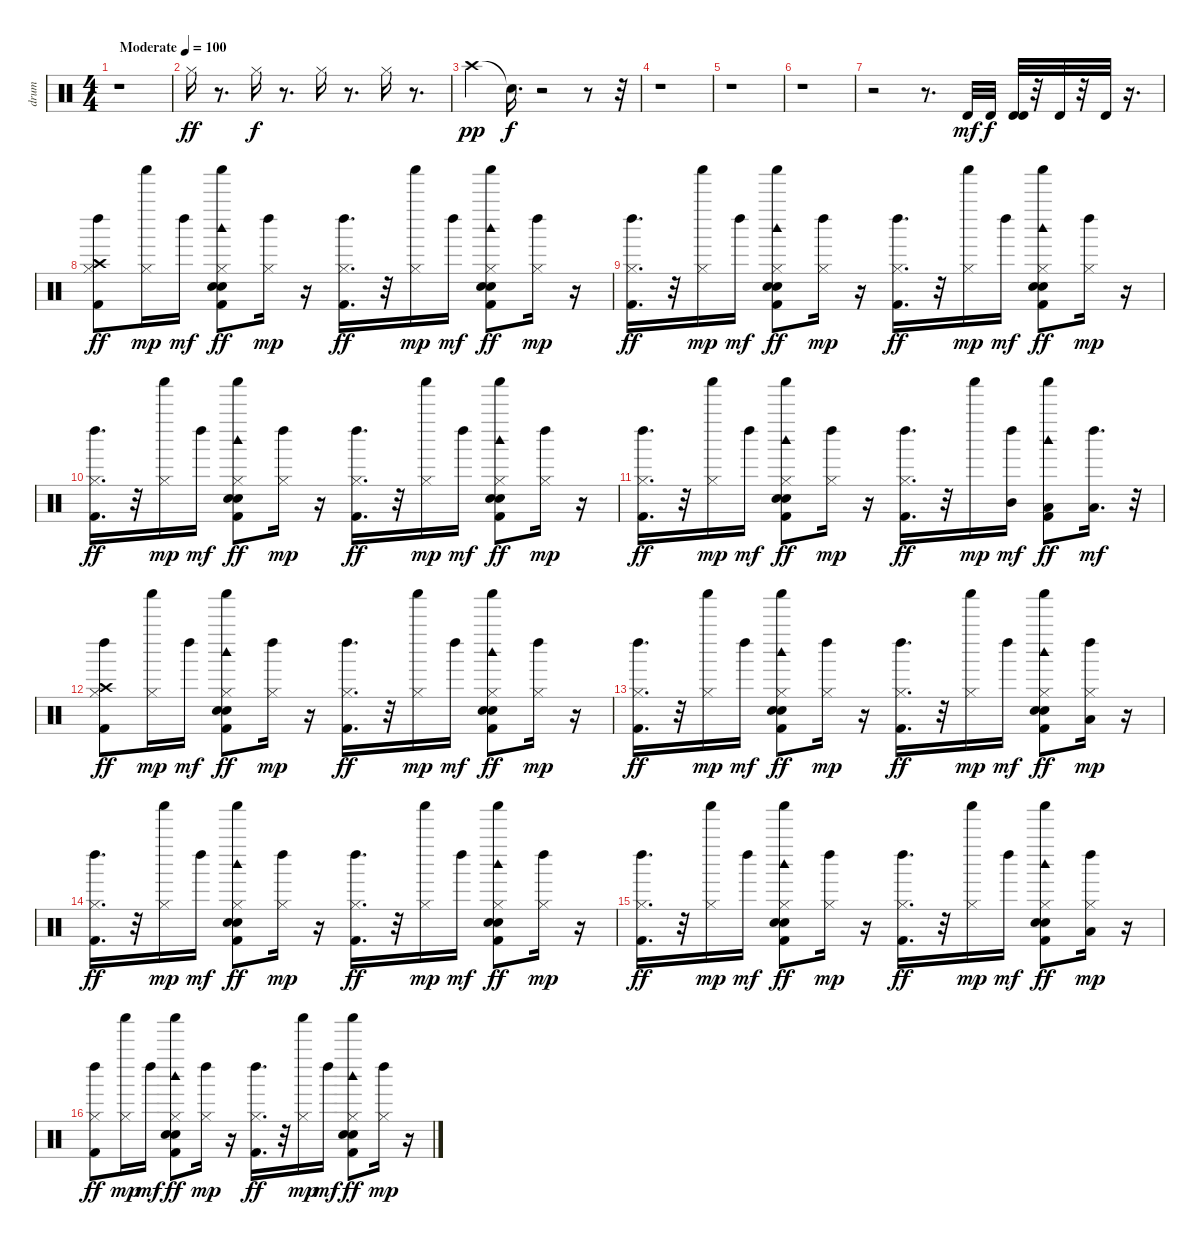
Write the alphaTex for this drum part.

\track ("drum" "drum") {instrument percussion}
\staff {score}
\articulation defaults
\ts (4 4)
\tempo (100 "Moderate")
\clef neutral
\ks c
r.1{dy ff} |
"Hi-Hat (closed)".16 r.8{d} "Hi-Hat (closed)".16{dy f} r.8{d} "Hi-Hat (closed)".16 r.8{d} "Hi-Hat (closed)".16 r.8{d} |
"Crash high (hit)".4{dy pp} "Snare (hit)"{t}.16{d dy f} r.2 r.8 r.32 |
r.1 |
r.1 |
r.1 |
r.2 r.8{d} "Timbale high (hit)".32{dy mf} "Timbale high (hit)".32{dy f} ("Timbale high (hit)" "Timbale high (hit)").32 r.32 "Timbale high (hit)".32 r.32 "Timbale high (hit)".32 r.16{d} |
("Crash high (hit)" "Left Maraca (hit)" "Hi-Hat (closed)" "Kick (hit) 2").8{dy ff} ("Shaker (hit)" "Hi-Hat (closed)").16{dy mp} "Left Maraca (hit)".16{dy mf} ("Shaker (hit)" "Woodblock high (hit)" "Hi-Hat (closed)" "Hand Clap (hit)" "Snare (hit) 2" "Kick (hit) 2").8{dy ff} ("Left Maraca (hit)" "Hi-Hat (closed)").16{dy mp} r.16 ("Left Maraca (hit)" "Hi-Hat (closed)" "Kick (hit) 2").16{d dy ff} r.32 ("Shaker (hit)" "Hi-Hat (closed)").16{dy mp} "Left Maraca (hit)".16{dy mf} ("Shaker (hit)" "Woodblock high (hit)" "Hi-Hat (closed)" "Hand Clap (hit)" "Snare (hit) 2" "Kick (hit) 2").8{dy ff} ("Left Maraca (hit)" "Hi-Hat (closed)").16{dy mp} r.16 |
("Left Maraca (hit)" "Hi-Hat (closed)" "Kick (hit) 2").16{d dy ff} r.32 ("Shaker (hit)" "Hi-Hat (closed)").16{dy mp} "Left Maraca (hit)".16{dy mf} ("Shaker (hit)" "Woodblock high (hit)" "Hi-Hat (closed)" "Hand Clap (hit)" "Snare (hit) 2" "Kick (hit) 2").8{dy ff} ("Left Maraca (hit)" "Hi-Hat (closed)").16{dy mp} r.16 ("Left Maraca (hit)" "Hi-Hat (closed)" "Kick (hit) 2").16{d dy ff} r.32 ("Shaker (hit)" "Hi-Hat (closed)").16{dy mp} "Left Maraca (hit)".16{dy mf} ("Shaker (hit)" "Woodblock high (hit)" "Hi-Hat (closed)" "Hand Clap (hit)" "Snare (hit) 2" "Kick (hit) 2").8{dy ff} ("Left Maraca (hit)" "Hi-Hat (closed)").16{dy mp} r.16 |
("Left Maraca (hit)" "Hi-Hat (closed)" "Kick (hit) 2").16{d dy ff} r.32 ("Shaker (hit)" "Hi-Hat (closed)").16{dy mp} "Left Maraca (hit)".16{dy mf} ("Shaker (hit)" "Woodblock high (hit)" "Hi-Hat (closed)" "Hand Clap (hit)" "Snare (hit) 2" "Kick (hit) 2").8{dy ff} ("Left Maraca (hit)" "Hi-Hat (closed)").16{dy mp} r.16 ("Left Maraca (hit)" "Hi-Hat (closed)" "Kick (hit) 2").16{d dy ff} r.32 ("Shaker (hit)" "Hi-Hat (closed)").16{dy mp} "Left Maraca (hit)".16{dy mf} ("Shaker (hit)" "Woodblock high (hit)" "Hi-Hat (closed)" "Hand Clap (hit)" "Snare (hit) 2" "Kick (hit) 2").8{dy ff} ("Left Maraca (hit)" "Hi-Hat (closed)").16{dy mp} r.16 |
("Left Maraca (hit)" "Hi-Hat (closed)" "Kick (hit) 2").16{d dy ff} r.32 ("Shaker (hit)" "Hi-Hat (closed)").16{dy mp} "Left Maraca (hit)".16{dy mf} ("Shaker (hit)" "Woodblock high (hit)" "Hi-Hat (closed)" "Hand Clap (hit)" "Snare (hit) 2" "Kick (hit) 2").8{dy ff} ("Left Maraca (hit)" "Hi-Hat (closed)").16{dy mp} r.16 ("Left Maraca (hit)" "Hi-Hat (closed)" "Kick (hit) 2").16{d dy ff} r.32 "Shaker (hit)".16{dy mp} ("Left Maraca (hit)" "Mid Tom (hit)").16{dy mf} ("Shaker (hit)" "Woodblock high (hit)" "Kick (hit) 2" "Low Tom (hit)").8{dy ff} ("Left Maraca (hit)" "Low Floor Tom (hit)").16{d dy mf} r.32 |
("Crash high (hit)" "Left Maraca (hit)" "Hi-Hat (closed)" "Kick (hit) 2").8{dy ff} ("Shaker (hit)" "Hi-Hat (closed)").16{dy mp} "Left Maraca (hit)".16{dy mf} ("Shaker (hit)" "Woodblock high (hit)" "Hi-Hat (closed)" "Hand Clap (hit)" "Snare (hit) 2" "Kick (hit) 2").8{dy ff} ("Left Maraca (hit)" "Hi-Hat (closed)").16{dy mp} r.16 ("Left Maraca (hit)" "Hi-Hat (closed)" "Kick (hit) 2").16{d dy ff} r.32 ("Shaker (hit)" "Hi-Hat (closed)").16{dy mp} "Left Maraca (hit)".16{dy mf} ("Shaker (hit)" "Woodblock high (hit)" "Hi-Hat (closed)" "Hand Clap (hit)" "Snare (hit) 2" "Kick (hit) 2").8{dy ff} ("Left Maraca (hit)" "Hi-Hat (closed)").16{dy mp} r.16 |
("Left Maraca (hit)" "Hi-Hat (closed)" "Kick (hit) 2").16{d dy ff} r.32 ("Shaker (hit)" "Hi-Hat (closed)").16{dy mp} "Left Maraca (hit)".16{dy mf} ("Shaker (hit)" "Woodblock high (hit)" "Hi-Hat (closed)" "Hand Clap (hit)" "Snare (hit) 2" "Kick (hit) 2").8{dy ff} ("Left Maraca (hit)" "Hi-Hat (closed)").16{dy mp} r.16 ("Left Maraca (hit)" "Hi-Hat (closed)" "Kick (hit) 2").16{d dy ff} r.32 ("Shaker (hit)" "Hi-Hat (closed)").16{dy mp} "Left Maraca (hit)".16{dy mf} ("Shaker (hit)" "Woodblock high (hit)" "Hi-Hat (closed)" "Hand Clap (hit)" "Snare (hit) 2" "Kick (hit) 2").8{dy ff} ("Left Maraca (hit)" "Hi-Hat (closed)" "Low Floor Tom (hit)").16{dy mp} r.16 |
("Left Maraca (hit)" "Hi-Hat (closed)" "Kick (hit) 2").16{d dy ff} r.32 ("Shaker (hit)" "Hi-Hat (closed)").16{dy mp} "Left Maraca (hit)".16{dy mf} ("Shaker (hit)" "Woodblock high (hit)" "Hi-Hat (closed)" "Hand Clap (hit)" "Snare (hit) 2" "Kick (hit) 2").8{dy ff} ("Left Maraca (hit)" "Hi-Hat (closed)").16{dy mp} r.16 ("Left Maraca (hit)" "Hi-Hat (closed)" "Kick (hit) 2").16{d dy ff} r.32 ("Shaker (hit)" "Hi-Hat (closed)").16{dy mp} "Left Maraca (hit)".16{dy mf} ("Shaker (hit)" "Woodblock high (hit)" "Hi-Hat (closed)" "Hand Clap (hit)" "Snare (hit) 2" "Kick (hit) 2").8{dy ff} ("Left Maraca (hit)" "Hi-Hat (closed)").16{dy mp} r.16 |
("Left Maraca (hit)" "Hi-Hat (closed)" "Kick (hit) 2").16{d dy ff} r.32 ("Shaker (hit)" "Hi-Hat (closed)").16{dy mp} "Left Maraca (hit)".16{dy mf} ("Shaker (hit)" "Woodblock high (hit)" "Hi-Hat (closed)" "Hand Clap (hit)" "Snare (hit) 2" "Kick (hit) 2").8{dy ff} ("Left Maraca (hit)" "Hi-Hat (closed)").16{dy mp} r.16 ("Left Maraca (hit)" "Hi-Hat (closed)" "Kick (hit) 2").16{d dy ff} r.32 ("Shaker (hit)" "Hi-Hat (closed)").16{dy mp} "Left Maraca (hit)".16{dy mf} ("Shaker (hit)" "Woodblock high (hit)" "Hi-Hat (closed)" "Hand Clap (hit)" "Snare (hit) 2" "Kick (hit) 2").8{dy ff} ("Left Maraca (hit)" "Hi-Hat (closed)" "Low Floor Tom (hit)").16{dy mp} r.16 |
("Left Maraca (hit)" "Hi-Hat (closed)" "Kick (hit) 2").8{dy ff} ("Shaker (hit)" "Hi-Hat (closed)").16{dy mp} "Left Maraca (hit)".16{dy mf} ("Shaker (hit)" "Woodblock high (hit)" "Hi-Hat (closed)" "Hand Clap (hit)" "Snare (hit) 2" "Kick (hit) 2").8{dy ff} ("Left Maraca (hit)" "Hi-Hat (closed)").16{dy mp} r.16 ("Left Maraca (hit)" "Hi-Hat (closed)" "Kick (hit) 2").16{d dy ff} r.32 ("Shaker (hit)" "Hi-Hat (closed)").16{dy mp} "Left Maraca (hit)".16{dy mf} ("Shaker (hit)" "Woodblock high (hit)" "Hi-Hat (closed)" "Hand Clap (hit)" "Snare (hit) 2" "Kick (hit) 2").8{dy ff} ("Left Maraca (hit)" "Hi-Hat (closed)").16{dy mp} r.16
